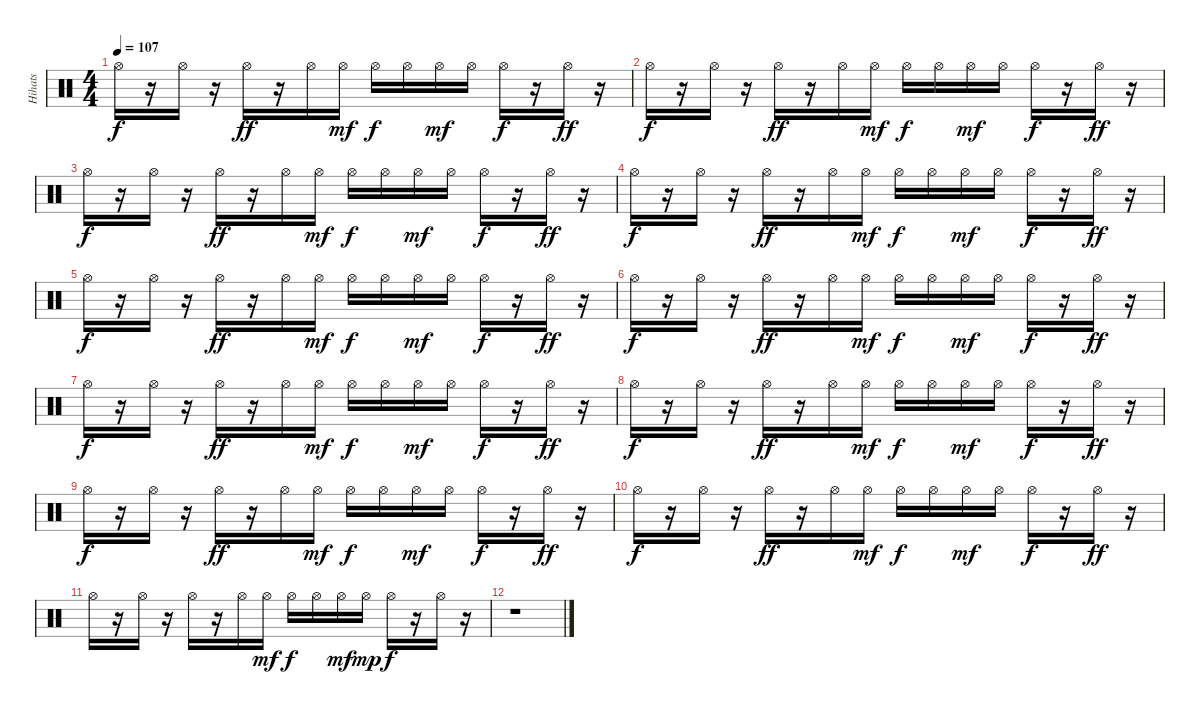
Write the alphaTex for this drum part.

\track ("Hihats" "Hihats") {instrument percussion}
\staff {score}
\articulation defaults
\ts (4 4)
\tempo 107
\clef neutral
\ks c "Hi-Hat (open)".16{dy f}
r.16 "Hi-Hat (open)".16 r.16 "Hi-Hat (open)".16{dy ff} r.16 "Hi-Hat (open)".16 "Hi-Hat (open)".16{dy mf} "Hi-Hat (open)".16{dy f} "Hi-Hat (open)".16 "Hi-Hat (open)".16{dy mf} "Hi-Hat (open)".16 "Hi-Hat (open)".16{dy f} r.16 "Hi-Hat (open)".16{dy ff} r.16 |
"Hi-Hat (open)".16{dy f} r.16 "Hi-Hat (open)".16 r.16 "Hi-Hat (open)".16{dy ff} r.16 "Hi-Hat (open)".16 "Hi-Hat (open)".16{dy mf} "Hi-Hat (open)".16{dy f} "Hi-Hat (open)".16 "Hi-Hat (open)".16{dy mf} "Hi-Hat (open)".16 "Hi-Hat (open)".16{dy f} r.16 "Hi-Hat (open)".16{dy ff} r.16 |
"Hi-Hat (open)".16{dy f} r.16 "Hi-Hat (open)".16 r.16 "Hi-Hat (open)".16{dy ff} r.16 "Hi-Hat (open)".16 "Hi-Hat (open)".16{dy mf} "Hi-Hat (open)".16{dy f} "Hi-Hat (open)".16 "Hi-Hat (open)".16{dy mf} "Hi-Hat (open)".16 "Hi-Hat (open)".16{dy f} r.16 "Hi-Hat (open)".16{dy ff} r.16 |
"Hi-Hat (open)".16{dy f} r.16 "Hi-Hat (open)".16 r.16 "Hi-Hat (open)".16{dy ff} r.16 "Hi-Hat (open)".16 "Hi-Hat (open)".16{dy mf} "Hi-Hat (open)".16{dy f} "Hi-Hat (open)".16 "Hi-Hat (open)".16{dy mf} "Hi-Hat (open)".16 "Hi-Hat (open)".16{dy f} r.16 "Hi-Hat (open)".16{dy ff} r.16 |
"Hi-Hat (open)".16{dy f} r.16 "Hi-Hat (open)".16 r.16 "Hi-Hat (open)".16{dy ff} r.16 "Hi-Hat (open)".16 "Hi-Hat (open)".16{dy mf} "Hi-Hat (open)".16{dy f} "Hi-Hat (open)".16 "Hi-Hat (open)".16{dy mf} "Hi-Hat (open)".16 "Hi-Hat (open)".16{dy f} r.16 "Hi-Hat (open)".16{dy ff} r.16 |
"Hi-Hat (open)".16{dy f} r.16 "Hi-Hat (open)".16 r.16 "Hi-Hat (open)".16{dy ff} r.16 "Hi-Hat (open)".16 "Hi-Hat (open)".16{dy mf} "Hi-Hat (open)".16{dy f} "Hi-Hat (open)".16 "Hi-Hat (open)".16{dy mf} "Hi-Hat (open)".16 "Hi-Hat (open)".16{dy f} r.16 "Hi-Hat (open)".16{dy ff} r.16 |
"Hi-Hat (open)".16{dy f} r.16 "Hi-Hat (open)".16 r.16 "Hi-Hat (open)".16{dy ff} r.16 "Hi-Hat (open)".16 "Hi-Hat (open)".16{dy mf} "Hi-Hat (open)".16{dy f} "Hi-Hat (open)".16 "Hi-Hat (open)".16{dy mf} "Hi-Hat (open)".16 "Hi-Hat (open)".16{dy f} r.16 "Hi-Hat (open)".16{dy ff} r.16 |
"Hi-Hat (open)".16{dy f} r.16 "Hi-Hat (open)".16 r.16 "Hi-Hat (open)".16{dy ff} r.16 "Hi-Hat (open)".16 "Hi-Hat (open)".16{dy mf} "Hi-Hat (open)".16{dy f} "Hi-Hat (open)".16 "Hi-Hat (open)".16{dy mf} "Hi-Hat (open)".16 "Hi-Hat (open)".16{dy f} r.16 "Hi-Hat (open)".16{dy ff} r.16 |
"Hi-Hat (open)".16{dy f} r.16 "Hi-Hat (open)".16 r.16 "Hi-Hat (open)".16{dy ff} r.16 "Hi-Hat (open)".16 "Hi-Hat (open)".16{dy mf} "Hi-Hat (open)".16{dy f} "Hi-Hat (open)".16 "Hi-Hat (open)".16{dy mf} "Hi-Hat (open)".16 "Hi-Hat (open)".16{dy f} r.16 "Hi-Hat (open)".16{dy ff} r.16 |
"Hi-Hat (open)".16{dy f} r.16 "Hi-Hat (open)".16 r.16 "Hi-Hat (open)".16{dy ff} r.16 "Hi-Hat (open)".16 "Hi-Hat (open)".16{dy mf} "Hi-Hat (open)".16{dy f} "Hi-Hat (open)".16 "Hi-Hat (open)".16{dy mf} "Hi-Hat (open)".16 "Hi-Hat (open)".16{dy f} r.16 "Hi-Hat (open)".16{dy ff} r.16 |
"Hi-Hat (open)".16 r.16 "Hi-Hat (open)".16 r.16 "Hi-Hat (open)".16 r.16 "Hi-Hat (open)".16 "Hi-Hat (open)".16{dy mf} "Hi-Hat (open)".16{dy f} "Hi-Hat (open)".16 "Hi-Hat (open)".16{dy mf} "Hi-Hat (open)".16{dy mp} "Hi-Hat (open)".16{dy f} r.16 "Hi-Hat (open)".16 r.16 |
r.1
